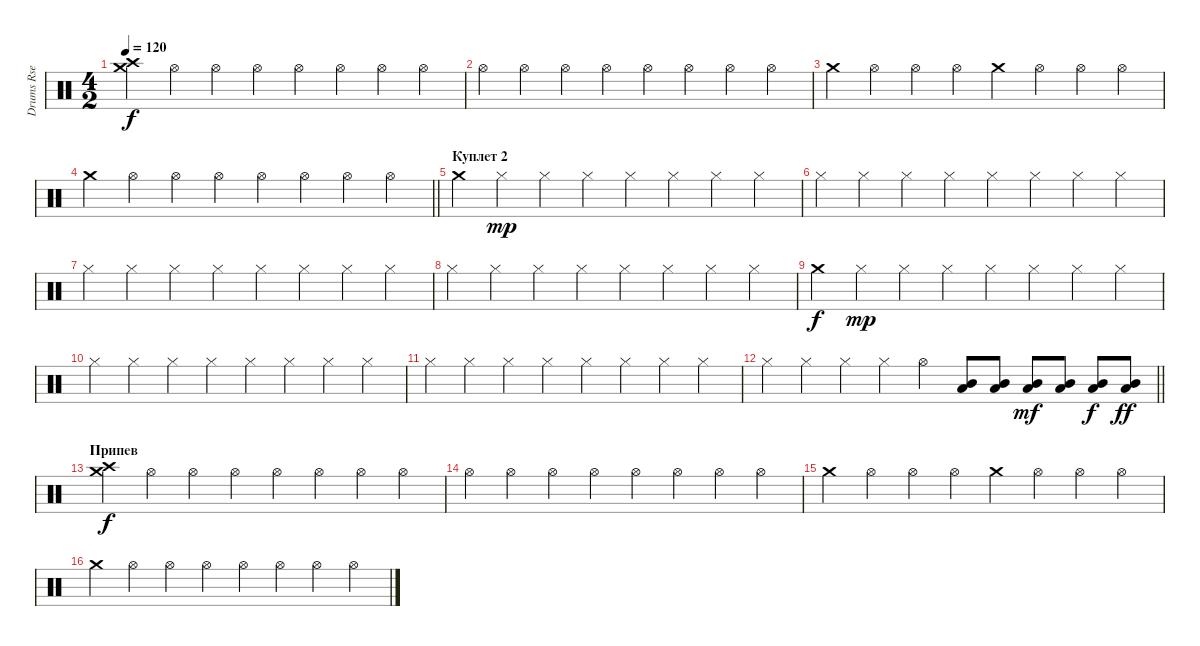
\track ("Drums Rse" "Drums Rse") {instrument percussion}
\staff {score}
\articulation defaults
\ts (4 2)
\tempo 120
\clef neutral
\ks c
("Crash medium (hit)" "Crash high (hit)").4{dy f} "Hi-Hat (open)".4 "Hi-Hat (open)".4 "Hi-Hat (open)".4 "Hi-Hat (open)".4 "Hi-Hat (open)".4 "Hi-Hat (open)".4 "Hi-Hat (open)".4 |
"Hi-Hat (open)".4 "Hi-Hat (open)".4 "Hi-Hat (open)".4 "Hi-Hat (open)".4 "Hi-Hat (open)".4 "Hi-Hat (open)".4 "Hi-Hat (open)".4 "Hi-Hat (open)".4 |
"Crash medium (hit)".4 "Hi-Hat (open)".4 "Hi-Hat (open)".4 "Hi-Hat (open)".4 "Crash medium (hit)".4 "Hi-Hat (open)".4 "Hi-Hat (open)".4 "Hi-Hat (open)".4 |
\barLineRight lightlight "Crash medium (hit)".4 "Hi-Hat (open)".4 "Hi-Hat (open)".4 "Hi-Hat (open)".4 "Hi-Hat (open)".4 "Hi-Hat (open)".4 "Hi-Hat (open)".4 "Hi-Hat (open)".4
|
\section ("" "Куплет 2")
"Crash medium (hit)".4 "Hi-Hat (closed)".4{dy mp} "Hi-Hat (closed)".4 "Hi-Hat (closed)".4 "Hi-Hat (closed)".4 "Hi-Hat (closed)".4 "Hi-Hat (closed)".4 "Hi-Hat (closed)".4 |
"Hi-Hat (closed)".4 "Hi-Hat (closed)".4 "Hi-Hat (closed)".4 "Hi-Hat (closed)".4 "Hi-Hat (closed)".4 "Hi-Hat (closed)".4 "Hi-Hat (closed)".4 "Hi-Hat (closed)".4 |
"Hi-Hat (closed)".4 "Hi-Hat (closed)".4 "Hi-Hat (closed)".4 "Hi-Hat (closed)".4 "Hi-Hat (closed)".4 "Hi-Hat (closed)".4 "Hi-Hat (closed)".4 "Hi-Hat (closed)".4 |
"Hi-Hat (closed)".4 "Hi-Hat (closed)".4 "Hi-Hat (closed)".4 "Hi-Hat (closed)".4 "Hi-Hat (closed)".4 "Hi-Hat (closed)".4 "Hi-Hat (closed)".4 "Hi-Hat (closed)".4 |
"Crash medium (hit)".4{dy f} "Hi-Hat (closed)".4{dy mp} "Hi-Hat (closed)".4 "Hi-Hat (closed)".4 "Hi-Hat (closed)".4 "Hi-Hat (closed)".4 "Hi-Hat (closed)".4 "Hi-Hat (closed)".4 |
"Hi-Hat (closed)".4 "Hi-Hat (closed)".4 "Hi-Hat (closed)".4 "Hi-Hat (closed)".4 "Hi-Hat (closed)".4 "Hi-Hat (closed)".4 "Hi-Hat (closed)".4 "Hi-Hat (closed)".4 |
"Hi-Hat (closed)".4 "Hi-Hat (closed)".4 "Hi-Hat (closed)".4 "Hi-Hat (closed)".4 "Hi-Hat (closed)".4 "Hi-Hat (closed)".4 "Hi-Hat (closed)".4 "Hi-Hat (closed)".4 |
\barLineRight lightlight "Hi-Hat (closed)".4 "Hi-Hat (closed)".4 "Hi-Hat (closed)".4 "Hi-Hat (closed)".4 "Hi-Hat (open)".4
("Mid Tom (hit)" "Low Tom (hit)").8 ("Mid Tom (hit)" "Low Tom (hit)").8 ("Mid Tom (hit)" "Low Tom (hit)").8{dy mf} ("Mid Tom (hit)" "Low Tom (hit)").8 ("Mid Tom (hit)" "Low Tom (hit)").8{dy f} ("Mid Tom (hit)" "Low Tom (hit)").8{dy ff} |
\section ("" "Припев")
("Crash medium (hit)" "Crash high (hit)").4{dy f} "Hi-Hat (open)".4 "Hi-Hat (open)".4 "Hi-Hat (open)".4 "Hi-Hat (open)".4 "Hi-Hat (open)".4 "Hi-Hat (open)".4 "Hi-Hat (open)".4 |
"Hi-Hat (open)".4 "Hi-Hat (open)".4 "Hi-Hat (open)".4 "Hi-Hat (open)".4 "Hi-Hat (open)".4 "Hi-Hat (open)".4 "Hi-Hat (open)".4 "Hi-Hat (open)".4 |
"Crash medium (hit)".4 "Hi-Hat (open)".4 "Hi-Hat (open)".4 "Hi-Hat (open)".4 "Crash medium (hit)".4 "Hi-Hat (open)".4 "Hi-Hat (open)".4 "Hi-Hat (open)".4 |
"Crash medium (hit)".4 "Hi-Hat (open)".4 "Hi-Hat (open)".4 "Hi-Hat (open)".4 "Hi-Hat (open)".4 "Hi-Hat (open)".4 "Hi-Hat (open)".4 "Hi-Hat (open)".4
